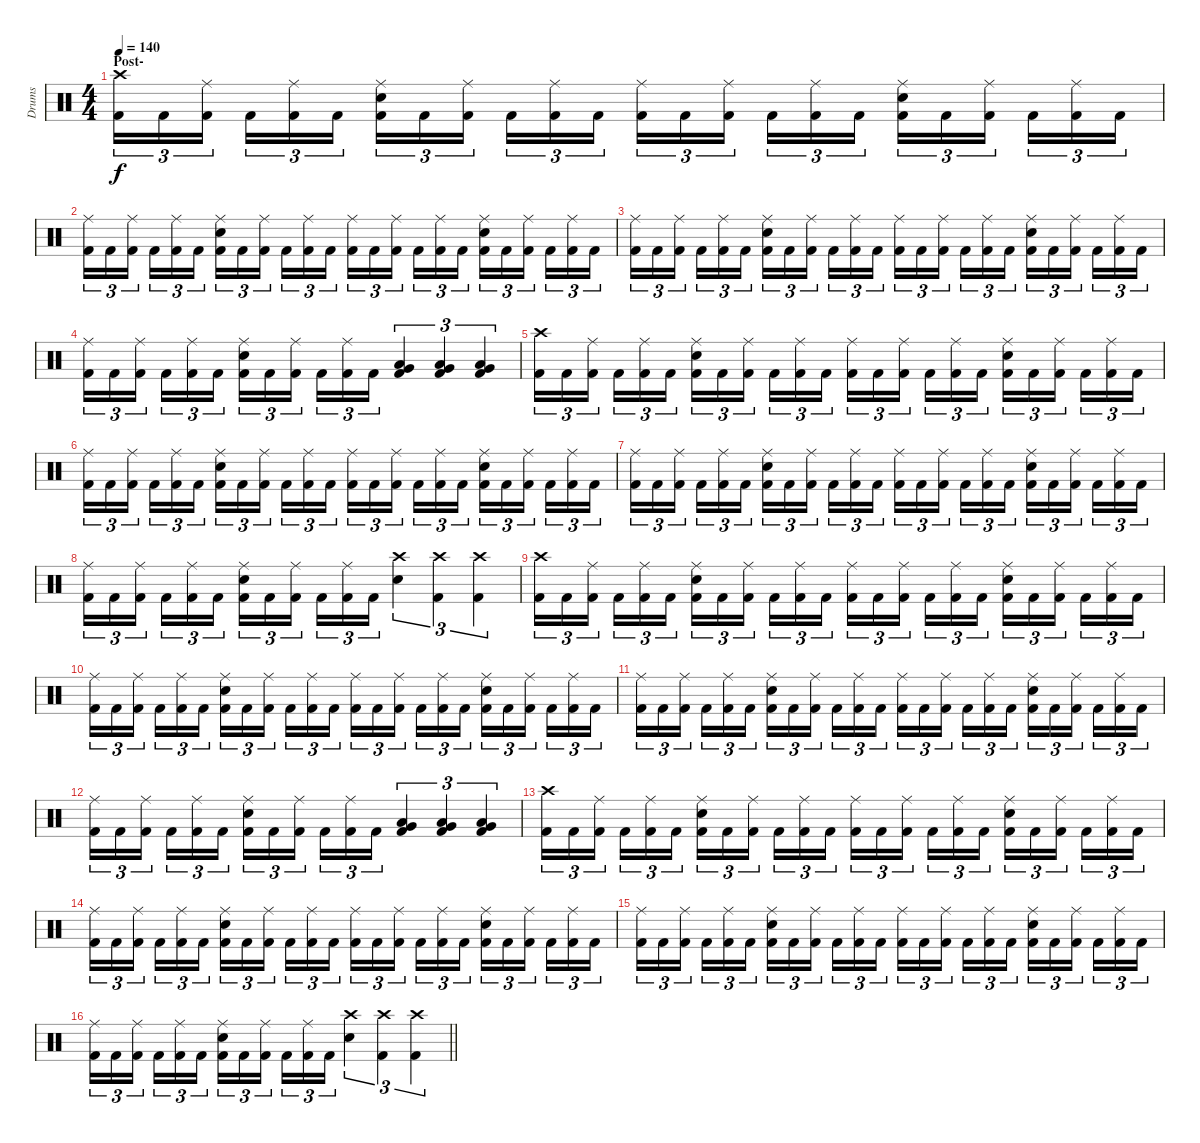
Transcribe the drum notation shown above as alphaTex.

\track ("Drums" "Drums") {instrument percussion}
\staff {score}
\articulation defaults
\ts (4 4)
\section ("" "Post-")
\tempo 140
\clef neutral
\ks c
("Crash high (hit)" "Kick (hit) 2").16{tu (3 2) dy f} "Kick (hit) 2".16{tu (3 2)} ("Ride (middle)" "Kick (hit) 2").16{tu (3 2)} "Kick (hit) 2".16{tu (3 2)} ("Ride (middle)" "Kick (hit) 2").16{tu (3 2)} "Kick (hit) 2".16{tu (3 2)} ("Ride (middle)" "Electric Snare (hit)" "Kick (hit) 2").16{tu (3 2)} "Kick (hit) 2".16{tu (3 2)} ("Ride (middle)" "Kick (hit) 2").16{tu (3 2)} "Kick (hit) 2".16{tu (3 2)} ("Ride (middle)" "Kick (hit) 2").16{tu (3 2)} "Kick (hit) 2".16{tu (3 2)} ("Ride (middle)" "Kick (hit) 2").16{tu (3 2)} "Kick (hit) 2".16{tu (3 2)} ("Ride (middle)" "Kick (hit) 2").16{tu (3 2)} "Kick (hit) 2".16{tu (3 2)} ("Ride (middle)" "Kick (hit) 2").16{tu (3 2)} "Kick (hit) 2".16{tu (3 2)} ("Ride (middle)" "Electric Snare (hit)" "Kick (hit) 2").16{tu (3 2)} "Kick (hit) 2".16{tu (3 2)} ("Ride (middle)" "Kick (hit) 2").16{tu (3 2)} "Kick (hit) 2".16{tu (3 2)} ("Ride (middle)" "Kick (hit) 2").16{tu (3 2)} "Kick (hit) 2".16{tu (3 2)} |
("Ride (middle)" "Kick (hit) 2").16{tu (3 2)} "Kick (hit) 2".16{tu (3 2)} ("Ride (middle)" "Kick (hit) 2").16{tu (3 2)} "Kick (hit) 2".16{tu (3 2)} ("Ride (middle)" "Kick (hit) 2").16{tu (3 2)} "Kick (hit) 2".16{tu (3 2)} ("Ride (middle)" "Electric Snare (hit)" "Kick (hit) 2").16{tu (3 2)} "Kick (hit) 2".16{tu (3 2)} ("Ride (middle)" "Kick (hit) 2").16{tu (3 2)} "Kick (hit) 2".16{tu (3 2)} ("Ride (middle)" "Kick (hit) 2").16{tu (3 2)} "Kick (hit) 2".16{tu (3 2)} ("Ride (middle)" "Kick (hit) 2").16{tu (3 2)} "Kick (hit) 2".16{tu (3 2)} ("Ride (middle)" "Kick (hit) 2").16{tu (3 2)} "Kick (hit) 2".16{tu (3 2)} ("Ride (middle)" "Kick (hit) 2").16{tu (3 2)} "Kick (hit) 2".16{tu (3 2)} ("Ride (middle)" "Electric Snare (hit)" "Kick (hit) 2").16{tu (3 2)} "Kick (hit) 2".16{tu (3 2)} ("Ride (middle)" "Kick (hit) 2").16{tu (3 2)} "Kick (hit) 2".16{tu (3 2)} ("Ride (middle)" "Kick (hit) 2").16{tu (3 2)} "Kick (hit) 2".16{tu (3 2)} |
("Ride (middle)" "Kick (hit) 2").16{tu (3 2)} "Kick (hit) 2".16{tu (3 2)} ("Ride (middle)" "Kick (hit) 2").16{tu (3 2)} "Kick (hit) 2".16{tu (3 2)} ("Ride (middle)" "Kick (hit) 2").16{tu (3 2)} "Kick (hit) 2".16{tu (3 2)} ("Ride (middle)" "Electric Snare (hit)" "Kick (hit) 2").16{tu (3 2)} "Kick (hit) 2".16{tu (3 2)} ("Ride (middle)" "Kick (hit) 2").16{tu (3 2)} "Kick (hit) 2".16{tu (3 2)} ("Ride (middle)" "Kick (hit) 2").16{tu (3 2)} "Kick (hit) 2".16{tu (3 2)} ("Ride (middle)" "Kick (hit) 2").16{tu (3 2)} "Kick (hit) 2".16{tu (3 2)} ("Ride (middle)" "Kick (hit) 2").16{tu (3 2)} "Kick (hit) 2".16{tu (3 2)} ("Ride (middle)" "Kick (hit) 2").16{tu (3 2)} "Kick (hit) 2".16{tu (3 2)} ("Ride (middle)" "Electric Snare (hit)" "Kick (hit) 2").16{tu (3 2)} "Kick (hit) 2".16{tu (3 2)} ("Ride (middle)" "Kick (hit) 2").16{tu (3 2)} "Kick (hit) 2".16{tu (3 2)} ("Ride (middle)" "Kick (hit) 2").16{tu (3 2)} "Kick (hit) 2".16{tu (3 2)} |
("Ride (middle)" "Kick (hit) 2").16{tu (3 2)} "Kick (hit) 2".16{tu (3 2)} ("Ride (middle)" "Kick (hit) 2").16{tu (3 2)} "Kick (hit) 2".16{tu (3 2)} ("Ride (middle)" "Kick (hit) 2").16{tu (3 2)} "Kick (hit) 2".16{tu (3 2)} ("Ride (middle)" "Electric Snare (hit)" "Kick (hit) 2").16{tu (3 2)} "Kick (hit) 2".16{tu (3 2)} ("Ride (middle)" "Kick (hit) 2").16{tu (3 2)} "Kick (hit) 2".16{tu (3 2)} ("Ride (middle)" "Kick (hit) 2").16{tu (3 2)} "Kick (hit) 2".16{tu (3 2)} ("Very Low Tom (hit)" "Low Floor Tom (hit)" "Kick (hit) 2").4{tu (3 2)} ("Very Low Tom (hit)" "Low Floor Tom (hit)" "Kick (hit) 2").4{tu (3 2)} ("Very Low Tom (hit)" "Low Floor Tom (hit)" "Kick (hit) 2").4{tu (3 2)} |
("Crash high (hit)" "Kick (hit) 2").16{tu (3 2)} "Kick (hit) 2".16{tu (3 2)} ("Ride (middle)" "Kick (hit) 2").16{tu (3 2)} "Kick (hit) 2".16{tu (3 2)} ("Ride (middle)" "Kick (hit) 2").16{tu (3 2)} "Kick (hit) 2".16{tu (3 2)} ("Ride (middle)" "Electric Snare (hit)" "Kick (hit) 2").16{tu (3 2)} "Kick (hit) 2".16{tu (3 2)} ("Ride (middle)" "Kick (hit) 2").16{tu (3 2)} "Kick (hit) 2".16{tu (3 2)} ("Ride (middle)" "Kick (hit) 2").16{tu (3 2)} "Kick (hit) 2".16{tu (3 2)} ("Ride (middle)" "Kick (hit) 2").16{tu (3 2)} "Kick (hit) 2".16{tu (3 2)} ("Ride (middle)" "Kick (hit) 2").16{tu (3 2)} "Kick (hit) 2".16{tu (3 2)} ("Ride (middle)" "Kick (hit) 2").16{tu (3 2)} "Kick (hit) 2".16{tu (3 2)} ("Ride (middle)" "Electric Snare (hit)" "Kick (hit) 2").16{tu (3 2)} "Kick (hit) 2".16{tu (3 2)} ("Ride (middle)" "Kick (hit) 2").16{tu (3 2)} "Kick (hit) 2".16{tu (3 2)} ("Ride (middle)" "Kick (hit) 2").16{tu (3 2)} "Kick (hit) 2".16{tu (3 2)} |
("Ride (middle)" "Kick (hit) 2").16{tu (3 2)} "Kick (hit) 2".16{tu (3 2)} ("Ride (middle)" "Kick (hit) 2").16{tu (3 2)} "Kick (hit) 2".16{tu (3 2)} ("Ride (middle)" "Kick (hit) 2").16{tu (3 2)} "Kick (hit) 2".16{tu (3 2)} ("Ride (middle)" "Electric Snare (hit)" "Kick (hit) 2").16{tu (3 2)} "Kick (hit) 2".16{tu (3 2)} ("Ride (middle)" "Kick (hit) 2").16{tu (3 2)} "Kick (hit) 2".16{tu (3 2)} ("Ride (middle)" "Kick (hit) 2").16{tu (3 2)} "Kick (hit) 2".16{tu (3 2)} ("Ride (middle)" "Kick (hit) 2").16{tu (3 2)} "Kick (hit) 2".16{tu (3 2)} ("Ride (middle)" "Kick (hit) 2").16{tu (3 2)} "Kick (hit) 2".16{tu (3 2)} ("Ride (middle)" "Kick (hit) 2").16{tu (3 2)} "Kick (hit) 2".16{tu (3 2)} ("Ride (middle)" "Electric Snare (hit)" "Kick (hit) 2").16{tu (3 2)} "Kick (hit) 2".16{tu (3 2)} ("Ride (middle)" "Kick (hit) 2").16{tu (3 2)} "Kick (hit) 2".16{tu (3 2)} ("Ride (middle)" "Kick (hit) 2").16{tu (3 2)} "Kick (hit) 2".16{tu (3 2)} |
("Ride (middle)" "Kick (hit) 2").16{tu (3 2)} "Kick (hit) 2".16{tu (3 2)} ("Ride (middle)" "Kick (hit) 2").16{tu (3 2)} "Kick (hit) 2".16{tu (3 2)} ("Ride (middle)" "Kick (hit) 2").16{tu (3 2)} "Kick (hit) 2".16{tu (3 2)} ("Ride (middle)" "Electric Snare (hit)" "Kick (hit) 2").16{tu (3 2)} "Kick (hit) 2".16{tu (3 2)} ("Ride (middle)" "Kick (hit) 2").16{tu (3 2)} "Kick (hit) 2".16{tu (3 2)} ("Ride (middle)" "Kick (hit) 2").16{tu (3 2)} "Kick (hit) 2".16{tu (3 2)} ("Ride (middle)" "Kick (hit) 2").16{tu (3 2)} "Kick (hit) 2".16{tu (3 2)} ("Ride (middle)" "Kick (hit) 2").16{tu (3 2)} "Kick (hit) 2".16{tu (3 2)} ("Ride (middle)" "Kick (hit) 2").16{tu (3 2)} "Kick (hit) 2".16{tu (3 2)} ("Ride (middle)" "Electric Snare (hit)" "Kick (hit) 2").16{tu (3 2)} "Kick (hit) 2".16{tu (3 2)} ("Ride (middle)" "Kick (hit) 2").16{tu (3 2)} "Kick (hit) 2".16{tu (3 2)} ("Ride (middle)" "Kick (hit) 2").16{tu (3 2)} "Kick (hit) 2".16{tu (3 2)} |
("Ride (middle)" "Kick (hit) 2").16{tu (3 2)} "Kick (hit) 2".16{tu (3 2)} ("Ride (middle)" "Kick (hit) 2").16{tu (3 2)} "Kick (hit) 2".16{tu (3 2)} ("Ride (middle)" "Kick (hit) 2").16{tu (3 2)} "Kick (hit) 2".16{tu (3 2)} ("Ride (middle)" "Electric Snare (hit)" "Kick (hit) 2").16{tu (3 2)} "Kick (hit) 2".16{tu (3 2)} ("Ride (middle)" "Kick (hit) 2").16{tu (3 2)} "Kick (hit) 2".16{tu (3 2)} ("Ride (middle)" "Kick (hit) 2").16{tu (3 2)} "Kick (hit) 2".16{tu (3 2)} ("Crash high (hit)" "Electric Snare (hit)").4{tu (3 2)} ("Crash high (hit)" "Kick (hit) 2").4{tu (3 2)} ("Crash high (hit)" "Kick (hit) 2").4{tu (3 2)} |
("Crash high (hit)" "Kick (hit) 2").16{tu (3 2)} "Kick (hit) 2".16{tu (3 2)} ("Ride (middle)" "Kick (hit) 2").16{tu (3 2)} "Kick (hit) 2".16{tu (3 2)} ("Ride (middle)" "Kick (hit) 2").16{tu (3 2)} "Kick (hit) 2".16{tu (3 2)} ("Ride (middle)" "Electric Snare (hit)" "Kick (hit) 2").16{tu (3 2)} "Kick (hit) 2".16{tu (3 2)} ("Ride (middle)" "Kick (hit) 2").16{tu (3 2)} "Kick (hit) 2".16{tu (3 2)} ("Ride (middle)" "Kick (hit) 2").16{tu (3 2)} "Kick (hit) 2".16{tu (3 2)} ("Ride (middle)" "Kick (hit) 2").16{tu (3 2)} "Kick (hit) 2".16{tu (3 2)} ("Ride (middle)" "Kick (hit) 2").16{tu (3 2)} "Kick (hit) 2".16{tu (3 2)} ("Ride (middle)" "Kick (hit) 2").16{tu (3 2)} "Kick (hit) 2".16{tu (3 2)} ("Ride (middle)" "Electric Snare (hit)" "Kick (hit) 2").16{tu (3 2)} "Kick (hit) 2".16{tu (3 2)} ("Ride (middle)" "Kick (hit) 2").16{tu (3 2)} "Kick (hit) 2".16{tu (3 2)} ("Ride (middle)" "Kick (hit) 2").16{tu (3 2)} "Kick (hit) 2".16{tu (3 2)} |
("Ride (middle)" "Kick (hit) 2").16{tu (3 2)} "Kick (hit) 2".16{tu (3 2)} ("Ride (middle)" "Kick (hit) 2").16{tu (3 2)} "Kick (hit) 2".16{tu (3 2)} ("Ride (middle)" "Kick (hit) 2").16{tu (3 2)} "Kick (hit) 2".16{tu (3 2)} ("Ride (middle)" "Electric Snare (hit)" "Kick (hit) 2").16{tu (3 2)} "Kick (hit) 2".16{tu (3 2)} ("Ride (middle)" "Kick (hit) 2").16{tu (3 2)} "Kick (hit) 2".16{tu (3 2)} ("Ride (middle)" "Kick (hit) 2").16{tu (3 2)} "Kick (hit) 2".16{tu (3 2)} ("Ride (middle)" "Kick (hit) 2").16{tu (3 2)} "Kick (hit) 2".16{tu (3 2)} ("Ride (middle)" "Kick (hit) 2").16{tu (3 2)} "Kick (hit) 2".16{tu (3 2)} ("Ride (middle)" "Kick (hit) 2").16{tu (3 2)} "Kick (hit) 2".16{tu (3 2)} ("Ride (middle)" "Electric Snare (hit)" "Kick (hit) 2").16{tu (3 2)} "Kick (hit) 2".16{tu (3 2)} ("Ride (middle)" "Kick (hit) 2").16{tu (3 2)} "Kick (hit) 2".16{tu (3 2)} ("Ride (middle)" "Kick (hit) 2").16{tu (3 2)} "Kick (hit) 2".16{tu (3 2)} |
("Ride (middle)" "Kick (hit) 2").16{tu (3 2)} "Kick (hit) 2".16{tu (3 2)} ("Ride (middle)" "Kick (hit) 2").16{tu (3 2)} "Kick (hit) 2".16{tu (3 2)} ("Ride (middle)" "Kick (hit) 2").16{tu (3 2)} "Kick (hit) 2".16{tu (3 2)} ("Ride (middle)" "Electric Snare (hit)" "Kick (hit) 2").16{tu (3 2)} "Kick (hit) 2".16{tu (3 2)} ("Ride (middle)" "Kick (hit) 2").16{tu (3 2)} "Kick (hit) 2".16{tu (3 2)} ("Ride (middle)" "Kick (hit) 2").16{tu (3 2)} "Kick (hit) 2".16{tu (3 2)} ("Ride (middle)" "Kick (hit) 2").16{tu (3 2)} "Kick (hit) 2".16{tu (3 2)} ("Ride (middle)" "Kick (hit) 2").16{tu (3 2)} "Kick (hit) 2".16{tu (3 2)} ("Ride (middle)" "Kick (hit) 2").16{tu (3 2)} "Kick (hit) 2".16{tu (3 2)} ("Ride (middle)" "Electric Snare (hit)" "Kick (hit) 2").16{tu (3 2)} "Kick (hit) 2".16{tu (3 2)} ("Ride (middle)" "Kick (hit) 2").16{tu (3 2)} "Kick (hit) 2".16{tu (3 2)} ("Ride (middle)" "Kick (hit) 2").16{tu (3 2)} "Kick (hit) 2".16{tu (3 2)} |
("Ride (middle)" "Kick (hit) 2").16{tu (3 2)} "Kick (hit) 2".16{tu (3 2)} ("Ride (middle)" "Kick (hit) 2").16{tu (3 2)} "Kick (hit) 2".16{tu (3 2)} ("Ride (middle)" "Kick (hit) 2").16{tu (3 2)} "Kick (hit) 2".16{tu (3 2)} ("Ride (middle)" "Electric Snare (hit)" "Kick (hit) 2").16{tu (3 2)} "Kick (hit) 2".16{tu (3 2)} ("Ride (middle)" "Kick (hit) 2").16{tu (3 2)} "Kick (hit) 2".16{tu (3 2)} ("Ride (middle)" "Kick (hit) 2").16{tu (3 2)} "Kick (hit) 2".16{tu (3 2)} ("Very Low Tom (hit)" "Low Floor Tom (hit)" "Kick (hit) 2").4{tu (3 2)} ("Very Low Tom (hit)" "Low Floor Tom (hit)" "Kick (hit) 2").4{tu (3 2)} ("Very Low Tom (hit)" "Low Floor Tom (hit)" "Kick (hit) 2").4{tu (3 2)} |
("Crash high (hit)" "Kick (hit) 2").16{tu (3 2)} "Kick (hit) 2".16{tu (3 2)} ("Ride (middle)" "Kick (hit) 2").16{tu (3 2)} "Kick (hit) 2".16{tu (3 2)} ("Ride (middle)" "Kick (hit) 2").16{tu (3 2)} "Kick (hit) 2".16{tu (3 2)} ("Ride (middle)" "Electric Snare (hit)" "Kick (hit) 2").16{tu (3 2)} "Kick (hit) 2".16{tu (3 2)} ("Ride (middle)" "Kick (hit) 2").16{tu (3 2)} "Kick (hit) 2".16{tu (3 2)} ("Ride (middle)" "Kick (hit) 2").16{tu (3 2)} "Kick (hit) 2".16{tu (3 2)} ("Ride (middle)" "Kick (hit) 2").16{tu (3 2)} "Kick (hit) 2".16{tu (3 2)} ("Ride (middle)" "Kick (hit) 2").16{tu (3 2)} "Kick (hit) 2".16{tu (3 2)} ("Ride (middle)" "Kick (hit) 2").16{tu (3 2)} "Kick (hit) 2".16{tu (3 2)} ("Ride (middle)" "Electric Snare (hit)" "Kick (hit) 2").16{tu (3 2)} "Kick (hit) 2".16{tu (3 2)} ("Ride (middle)" "Kick (hit) 2").16{tu (3 2)} "Kick (hit) 2".16{tu (3 2)} ("Ride (middle)" "Kick (hit) 2").16{tu (3 2)} "Kick (hit) 2".16{tu (3 2)} |
("Ride (middle)" "Kick (hit) 2").16{tu (3 2)} "Kick (hit) 2".16{tu (3 2)} ("Ride (middle)" "Kick (hit) 2").16{tu (3 2)} "Kick (hit) 2".16{tu (3 2)} ("Ride (middle)" "Kick (hit) 2").16{tu (3 2)} "Kick (hit) 2".16{tu (3 2)} ("Ride (middle)" "Electric Snare (hit)" "Kick (hit) 2").16{tu (3 2)} "Kick (hit) 2".16{tu (3 2)} ("Ride (middle)" "Kick (hit) 2").16{tu (3 2)} "Kick (hit) 2".16{tu (3 2)} ("Ride (middle)" "Kick (hit) 2").16{tu (3 2)} "Kick (hit) 2".16{tu (3 2)} ("Ride (middle)" "Kick (hit) 2").16{tu (3 2)} "Kick (hit) 2".16{tu (3 2)} ("Ride (middle)" "Kick (hit) 2").16{tu (3 2)} "Kick (hit) 2".16{tu (3 2)} ("Ride (middle)" "Kick (hit) 2").16{tu (3 2)} "Kick (hit) 2".16{tu (3 2)} ("Ride (middle)" "Electric Snare (hit)" "Kick (hit) 2").16{tu (3 2)} "Kick (hit) 2".16{tu (3 2)} ("Ride (middle)" "Kick (hit) 2").16{tu (3 2)} "Kick (hit) 2".16{tu (3 2)} ("Ride (middle)" "Kick (hit) 2").16{tu (3 2)} "Kick (hit) 2".16{tu (3 2)} |
("Ride (middle)" "Kick (hit) 2").16{tu (3 2)} "Kick (hit) 2".16{tu (3 2)} ("Ride (middle)" "Kick (hit) 2").16{tu (3 2)} "Kick (hit) 2".16{tu (3 2)} ("Ride (middle)" "Kick (hit) 2").16{tu (3 2)} "Kick (hit) 2".16{tu (3 2)} ("Ride (middle)" "Electric Snare (hit)" "Kick (hit) 2").16{tu (3 2)} "Kick (hit) 2".16{tu (3 2)} ("Ride (middle)" "Kick (hit) 2").16{tu (3 2)} "Kick (hit) 2".16{tu (3 2)} ("Ride (middle)" "Kick (hit) 2").16{tu (3 2)} "Kick (hit) 2".16{tu (3 2)} ("Ride (middle)" "Kick (hit) 2").16{tu (3 2)} "Kick (hit) 2".16{tu (3 2)} ("Ride (middle)" "Kick (hit) 2").16{tu (3 2)} "Kick (hit) 2".16{tu (3 2)} ("Ride (middle)" "Kick (hit) 2").16{tu (3 2)} "Kick (hit) 2".16{tu (3 2)} ("Ride (middle)" "Electric Snare (hit)" "Kick (hit) 2").16{tu (3 2)} "Kick (hit) 2".16{tu (3 2)} ("Ride (middle)" "Kick (hit) 2").16{tu (3 2)} "Kick (hit) 2".16{tu (3 2)} ("Ride (middle)" "Kick (hit) 2").16{tu (3 2)} "Kick (hit) 2".16{tu (3 2)} |
\barLineRight lightlight
("Ride (middle)" "Kick (hit) 2").16{tu (3 2)} "Kick (hit) 2".16{tu (3 2)} ("Ride (middle)" "Kick (hit) 2").16{tu (3 2)} "Kick (hit) 2".16{tu (3 2)} ("Ride (middle)" "Kick (hit) 2").16{tu (3 2)} "Kick (hit) 2".16{tu (3 2)} ("Ride (middle)" "Electric Snare (hit)" "Kick (hit) 2").16{tu (3 2)} "Kick (hit) 2".16{tu (3 2)} ("Ride (middle)" "Kick (hit) 2").16{tu (3 2)} "Kick (hit) 2".16{tu (3 2)} ("Ride (middle)" "Kick (hit) 2").16{tu (3 2)} "Kick (hit) 2".16{tu (3 2)} ("Crash high (hit)" "Electric Snare (hit)").4{tu (3 2)} ("Crash high (hit)" "Kick (hit) 2").4{tu (3 2)} ("Crash high (hit)" "Kick (hit) 2").4{tu (3 2)}
